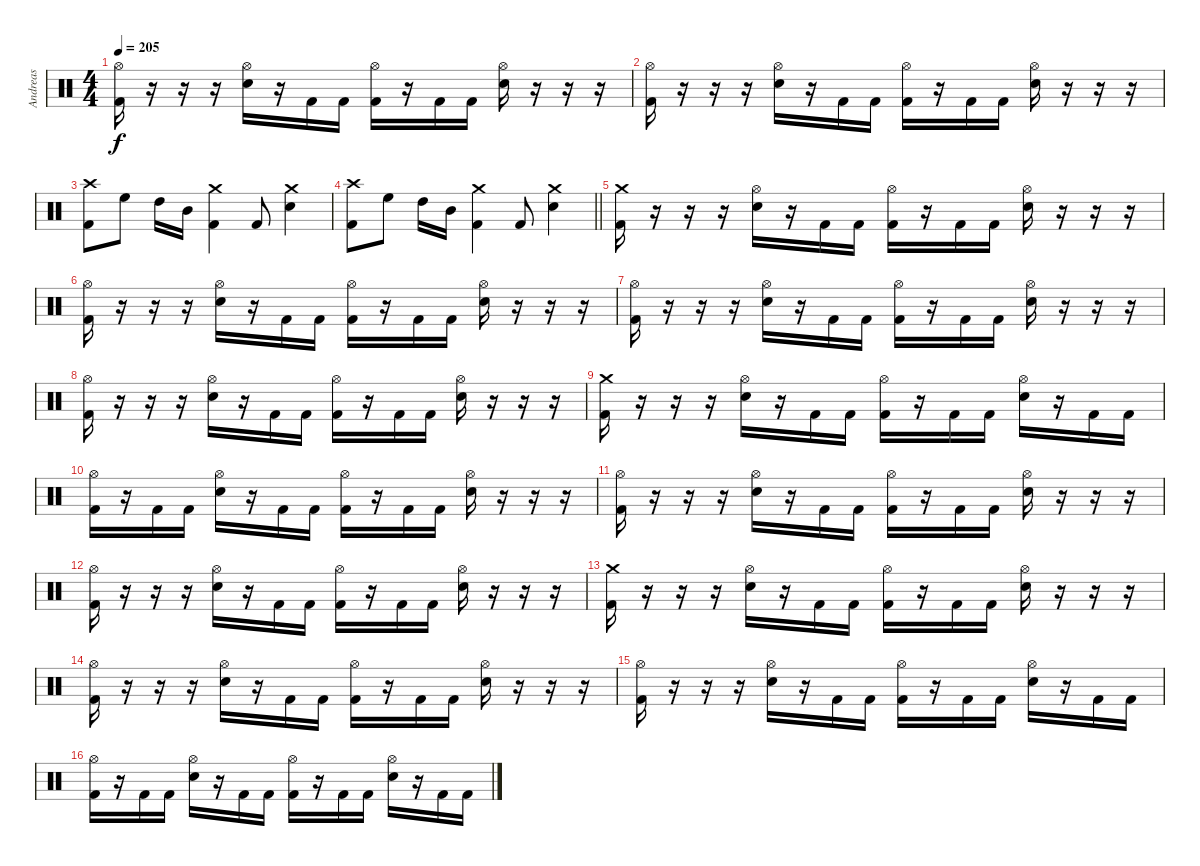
\track ("Andreas" "Andreas") {instrument percussion}
\staff {score}
\articulation defaults
\ts (4 4)
\tempo 205
\clef neutral
\ks c
("Hi-Hat (open)" "Kick (hit) 2").16{dy f} r.16 r.16 r.16 ("Hi-Hat (open)" "Electric Snare (hit)").16 r.16 "Kick (hit) 2".16 "Kick (hit) 2".16 ("Hi-Hat (open)" "Kick (hit) 2").16 r.16 "Kick (hit) 2".16 "Kick (hit) 2".16 ("Hi-Hat (open)" "Electric Snare (hit)").16 r.16 r.16 r.16 |
("Hi-Hat (open)" "Kick (hit) 2").16 r.16 r.16 r.16 ("Hi-Hat (open)" "Electric Snare (hit)").16 r.16 "Kick (hit) 2".16 "Kick (hit) 2".16 ("Hi-Hat (open)" "Kick (hit) 2").16 r.16 "Kick (hit) 2".16 "Kick (hit) 2".16 ("Hi-Hat (open)" "Electric Snare (hit)").16 r.16 r.16 r.16 |
("Crash high (hit)" "Kick (hit) 2").8 "High Floor Tom (hit)".8 "High Tom (hit)".16 "Mid Tom (hit)".16 ("Crash medium (hit)" "Kick (hit) 2").4 "Kick (hit) 2".8 ("Crash medium (hit)" "Electric Snare (hit)").4 |
\barLineRight lightlight
("Crash high (hit)" "Kick (hit) 2").8 "High Floor Tom (hit)".8 "High Tom (hit)".16 "Mid Tom (hit)".16 ("Crash medium (hit)" "Kick (hit) 2").4 "Kick (hit) 2".8 ("Crash medium (hit)" "Electric Snare (hit)").4 |
\section ("" "")
("Crash medium (hit)" "Kick (hit) 2").16 r.16 r.16 r.16 ("Hi-Hat (open)" "Electric Snare (hit)").16 r.16 "Kick (hit) 2".16 "Kick (hit) 2".16 ("Hi-Hat (open)" "Kick (hit) 2").16 r.16 "Kick (hit) 2".16 "Kick (hit) 2".16 ("Hi-Hat (open)" "Electric Snare (hit)").16 r.16 r.16 r.16 |
("Hi-Hat (open)" "Kick (hit) 2").16 r.16 r.16 r.16 ("Hi-Hat (open)" "Electric Snare (hit)").16 r.16 "Kick (hit) 2".16 "Kick (hit) 2".16 ("Hi-Hat (open)" "Kick (hit) 2").16 r.16 "Kick (hit) 2".16 "Kick (hit) 2".16 ("Hi-Hat (open)" "Electric Snare (hit)").16 r.16 r.16 r.16 |
("Hi-Hat (open)" "Kick (hit) 2").16 r.16 r.16 r.16 ("Hi-Hat (open)" "Electric Snare (hit)").16 r.16 "Kick (hit) 2".16 "Kick (hit) 2".16 ("Hi-Hat (open)" "Kick (hit) 2").16 r.16 "Kick (hit) 2".16 "Kick (hit) 2".16 ("Hi-Hat (open)" "Electric Snare (hit)").16 r.16 r.16 r.16 |
("Hi-Hat (open)" "Kick (hit) 2").16 r.16 r.16 r.16 ("Hi-Hat (open)" "Electric Snare (hit)").16 r.16 "Kick (hit) 2".16 "Kick (hit) 2".16 ("Hi-Hat (open)" "Kick (hit) 2").16 r.16 "Kick (hit) 2".16 "Kick (hit) 2".16 ("Hi-Hat (open)" "Electric Snare (hit)").16 r.16 r.16 r.16 |
("Crash medium (hit)" "Kick (hit) 2").16 r.16 r.16 r.16 ("Hi-Hat (open)" "Electric Snare (hit)").16 r.16 "Kick (hit) 2".16 "Kick (hit) 2".16 ("Hi-Hat (open)" "Kick (hit) 2").16 r.16 "Kick (hit) 2".16 "Kick (hit) 2".16 ("Hi-Hat (open)" "Electric Snare (hit)").16 r.16 "Kick (hit) 2".16 "Kick (hit) 2".16 |
("Hi-Hat (open)" "Kick (hit) 2").16 r.16 "Kick (hit) 2".16 "Kick (hit) 2".16 ("Hi-Hat (open)" "Electric Snare (hit)").16 r.16 "Kick (hit) 2".16 "Kick (hit) 2".16 ("Hi-Hat (open)" "Kick (hit) 2").16 r.16 "Kick (hit) 2".16 "Kick (hit) 2".16 ("Hi-Hat (open)" "Electric Snare (hit)").16 r.16 r.16 r.16 |
("Hi-Hat (open)" "Kick (hit) 2").16 r.16 r.16 r.16 ("Hi-Hat (open)" "Electric Snare (hit)").16 r.16 "Kick (hit) 2".16 "Kick (hit) 2".16 ("Hi-Hat (open)" "Kick (hit) 2").16 r.16 "Kick (hit) 2".16 "Kick (hit) 2".16 ("Hi-Hat (open)" "Electric Snare (hit)").16 r.16 r.16 r.16 |
("Hi-Hat (open)" "Kick (hit) 2").16 r.16 r.16 r.16 ("Hi-Hat (open)" "Electric Snare (hit)").16 r.16 "Kick (hit) 2".16 "Kick (hit) 2".16 ("Hi-Hat (open)" "Kick (hit) 2").16 r.16 "Kick (hit) 2".16 "Kick (hit) 2".16 ("Hi-Hat (open)" "Electric Snare (hit)").16 r.16 r.16 r.16 |
("Crash medium (hit)" "Kick (hit) 2").16 r.16 r.16 r.16 ("Hi-Hat (open)" "Electric Snare (hit)").16 r.16 "Kick (hit) 2".16 "Kick (hit) 2".16 ("Hi-Hat (open)" "Kick (hit) 2").16 r.16 "Kick (hit) 2".16 "Kick (hit) 2".16 ("Hi-Hat (open)" "Electric Snare (hit)").16 r.16 r.16 r.16 |
("Hi-Hat (open)" "Kick (hit) 2").16 r.16 r.16 r.16 ("Hi-Hat (open)" "Electric Snare (hit)").16 r.16 "Kick (hit) 2".16 "Kick (hit) 2".16 ("Hi-Hat (open)" "Kick (hit) 2").16 r.16 "Kick (hit) 2".16 "Kick (hit) 2".16 ("Hi-Hat (open)" "Electric Snare (hit)").16 r.16 r.16 r.16 |
("Hi-Hat (open)" "Kick (hit) 2").16 r.16 r.16 r.16 ("Hi-Hat (open)" "Electric Snare (hit)").16 r.16 "Kick (hit) 2".16 "Kick (hit) 2".16 ("Hi-Hat (open)" "Kick (hit) 2").16 r.16 "Kick (hit) 2".16 "Kick (hit) 2".16 ("Hi-Hat (open)" "Electric Snare (hit)").16 r.16 "Kick (hit) 2".16 "Kick (hit) 2".16 |
("Hi-Hat (open)" "Kick (hit) 2").16 r.16 "Kick (hit) 2".16 "Kick (hit) 2".16 ("Hi-Hat (open)" "Electric Snare (hit)").16 r.16 "Kick (hit) 2".16 "Kick (hit) 2".16 ("Hi-Hat (open)" "Kick (hit) 2").16 r.16 "Kick (hit) 2".16 "Kick (hit) 2".16 ("Hi-Hat (open)" "Electric Snare (hit)").16 r.16 "Kick (hit) 2".16 "Kick (hit) 2".16
